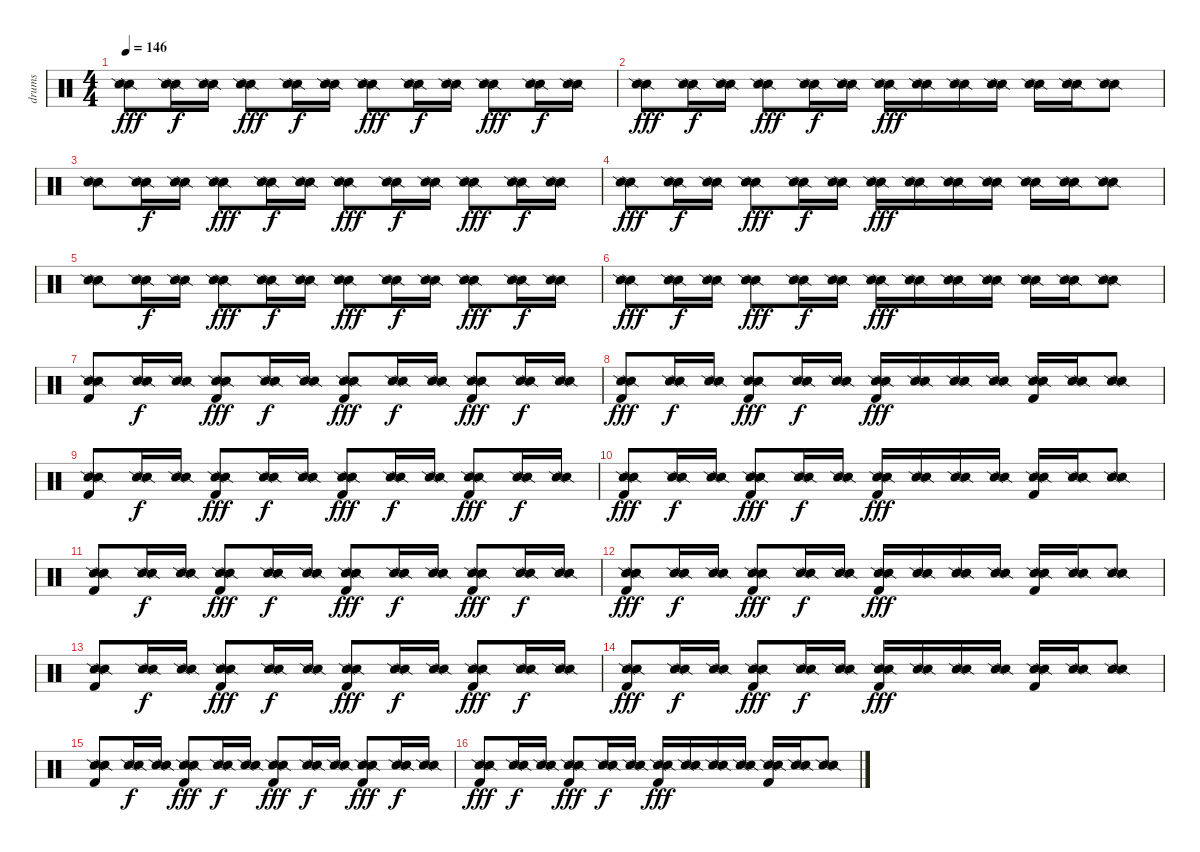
\track ("drums" "drums") {instrument percussion}
\staff {score}
\articulation defaults
\ts (4 4)
\tempo 146
\clef neutral
\ks c
("Snare (side stick) 2" "Snare (side stick) 2").8{dy fff} ("Snare (side stick) 2" "Snare (side stick) 2").16{dy f} ("Snare (side stick) 2" "Snare (side stick) 2").16 ("Snare (side stick) 2" "Snare (side stick) 2").8{dy fff} ("Snare (side stick) 2" "Snare (side stick) 2").16{dy f} ("Snare (side stick) 2" "Snare (side stick) 2").16 ("Snare (side stick) 2" "Snare (side stick) 2").8{dy fff} ("Snare (side stick) 2" "Snare (side stick) 2").16{dy f} ("Snare (side stick) 2" "Snare (side stick) 2").16 ("Snare (side stick) 2" "Snare (side stick) 2").8{dy fff} ("Snare (side stick) 2" "Snare (side stick) 2").16{dy f} ("Snare (side stick) 2" "Snare (side stick) 2").16 |
("Snare (side stick) 2" "Snare (side stick) 2").8{dy fff} ("Snare (side stick) 2" "Snare (side stick) 2").16{dy f} ("Snare (side stick) 2" "Snare (side stick) 2").16 ("Snare (side stick) 2" "Snare (side stick) 2").8{dy fff} ("Snare (side stick) 2" "Snare (side stick) 2").16{dy f} ("Snare (side stick) 2" "Snare (side stick) 2").16 ("Snare (side stick) 2" "Snare (side stick) 2").16{dy fff} ("Snare (side stick) 2" "Snare (side stick) 2").16 ("Snare (side stick) 2" "Snare (side stick) 2").16 ("Snare (side stick) 2" "Snare (side stick) 2").16 ("Snare (side stick) 2" "Snare (side stick) 2").16 ("Snare (side stick) 2" "Snare (side stick) 2").16 ("Snare (side stick) 2" "Snare (side stick) 2").8 |
("Snare (side stick) 2" "Snare (side stick) 2").8 ("Snare (side stick) 2" "Snare (side stick) 2").16{dy f} ("Snare (side stick) 2" "Snare (side stick) 2").16 ("Snare (side stick) 2" "Snare (side stick) 2").8{dy fff} ("Snare (side stick) 2" "Snare (side stick) 2").16{dy f} ("Snare (side stick) 2" "Snare (side stick) 2").16 ("Snare (side stick) 2" "Snare (side stick) 2").8{dy fff} ("Snare (side stick) 2" "Snare (side stick) 2").16{dy f} ("Snare (side stick) 2" "Snare (side stick) 2").16 ("Snare (side stick) 2" "Snare (side stick) 2").8{dy fff} ("Snare (side stick) 2" "Snare (side stick) 2").16{dy f} ("Snare (side stick) 2" "Snare (side stick) 2").16 |
("Snare (side stick) 2" "Snare (side stick) 2").8{dy fff} ("Snare (side stick) 2" "Snare (side stick) 2").16{dy f} ("Snare (side stick) 2" "Snare (side stick) 2").16 ("Snare (side stick) 2" "Snare (side stick) 2").8{dy fff} ("Snare (side stick) 2" "Snare (side stick) 2").16{dy f} ("Snare (side stick) 2" "Snare (side stick) 2").16 ("Snare (side stick) 2" "Snare (side stick) 2").16{dy fff} ("Snare (side stick) 2" "Snare (side stick) 2").16 ("Snare (side stick) 2" "Snare (side stick) 2").16 ("Snare (side stick) 2" "Snare (side stick) 2").16 ("Snare (side stick) 2" "Snare (side stick) 2").16 ("Snare (side stick) 2" "Snare (side stick) 2").16 ("Snare (side stick) 2" "Snare (side stick) 2").8 |
("Snare (side stick) 2" "Snare (side stick) 2").8 ("Snare (side stick) 2" "Snare (side stick) 2").16{dy f} ("Snare (side stick) 2" "Snare (side stick) 2").16 ("Snare (side stick) 2" "Snare (side stick) 2").8{dy fff} ("Snare (side stick) 2" "Snare (side stick) 2").16{dy f} ("Snare (side stick) 2" "Snare (side stick) 2").16 ("Snare (side stick) 2" "Snare (side stick) 2").8{dy fff} ("Snare (side stick) 2" "Snare (side stick) 2").16{dy f} ("Snare (side stick) 2" "Snare (side stick) 2").16 ("Snare (side stick) 2" "Snare (side stick) 2").8{dy fff} ("Snare (side stick) 2" "Snare (side stick) 2").16{dy f} ("Snare (side stick) 2" "Snare (side stick) 2").16 |
("Snare (side stick) 2" "Snare (side stick) 2").8{dy fff} ("Snare (side stick) 2" "Snare (side stick) 2").16{dy f} ("Snare (side stick) 2" "Snare (side stick) 2").16 ("Snare (side stick) 2" "Snare (side stick) 2").8{dy fff} ("Snare (side stick) 2" "Snare (side stick) 2").16{dy f} ("Snare (side stick) 2" "Snare (side stick) 2").16 ("Snare (side stick) 2" "Snare (side stick) 2").16{dy fff} ("Snare (side stick) 2" "Snare (side stick) 2").16 ("Snare (side stick) 2" "Snare (side stick) 2").16 ("Snare (side stick) 2" "Snare (side stick) 2").16 ("Snare (side stick) 2" "Snare (side stick) 2").16 ("Snare (side stick) 2" "Snare (side stick) 2").16 ("Snare (side stick) 2" "Snare (side stick) 2").8 |
("Snare (side stick) 2" "Snare (side stick) 2" "Kick (hit) 2").8 ("Snare (side stick) 2" "Snare (side stick) 2").16{dy f} ("Snare (side stick) 2" "Snare (side stick) 2").16 ("Snare (side stick) 2" "Snare (side stick) 2" "Kick (hit) 2").8{dy fff} ("Snare (side stick) 2" "Snare (side stick) 2").16{dy f} ("Snare (side stick) 2" "Snare (side stick) 2").16 ("Snare (side stick) 2" "Snare (side stick) 2" "Kick (hit) 2").8{dy fff} ("Snare (side stick) 2" "Snare (side stick) 2").16{dy f} ("Snare (side stick) 2" "Snare (side stick) 2").16 ("Snare (side stick) 2" "Snare (side stick) 2" "Kick (hit) 2").8{dy fff} ("Snare (side stick) 2" "Snare (side stick) 2").16{dy f} ("Snare (side stick) 2" "Snare (side stick) 2").16 |
("Snare (side stick) 2" "Snare (side stick) 2" "Kick (hit) 2").8{dy fff} ("Snare (side stick) 2" "Snare (side stick) 2").16{dy f} ("Snare (side stick) 2" "Snare (side stick) 2").16 ("Snare (side stick) 2" "Snare (side stick) 2" "Kick (hit) 2").8{dy fff} ("Snare (side stick) 2" "Snare (side stick) 2").16{dy f} ("Snare (side stick) 2" "Snare (side stick) 2").16 ("Snare (side stick) 2" "Snare (side stick) 2" "Kick (hit) 2").16{dy fff} ("Snare (side stick) 2" "Snare (side stick) 2").16 ("Snare (side stick) 2" "Snare (side stick) 2").16 ("Snare (side stick) 2" "Snare (side stick) 2").16 ("Snare (side stick) 2" "Snare (side stick) 2" "Kick (hit) 2").16 ("Snare (side stick) 2" "Snare (side stick) 2").16 ("Snare (side stick) 2" "Snare (side stick) 2").8 |
("Snare (side stick) 2" "Snare (side stick) 2" "Kick (hit) 2").8 ("Snare (side stick) 2" "Snare (side stick) 2").16{dy f} ("Snare (side stick) 2" "Snare (side stick) 2").16 ("Snare (side stick) 2" "Snare (side stick) 2" "Kick (hit) 2").8{dy fff} ("Snare (side stick) 2" "Snare (side stick) 2").16{dy f} ("Snare (side stick) 2" "Snare (side stick) 2").16 ("Snare (side stick) 2" "Snare (side stick) 2" "Kick (hit) 2").8{dy fff} ("Snare (side stick) 2" "Snare (side stick) 2").16{dy f} ("Snare (side stick) 2" "Snare (side stick) 2").16 ("Snare (side stick) 2" "Snare (side stick) 2" "Kick (hit) 2").8{dy fff} ("Snare (side stick) 2" "Snare (side stick) 2").16{dy f} ("Snare (side stick) 2" "Snare (side stick) 2").16 |
("Snare (side stick) 2" "Snare (side stick) 2" "Kick (hit) 2").8{dy fff} ("Snare (side stick) 2" "Snare (side stick) 2").16{dy f} ("Snare (side stick) 2" "Snare (side stick) 2").16 ("Snare (side stick) 2" "Snare (side stick) 2" "Kick (hit) 2").8{dy fff} ("Snare (side stick) 2" "Snare (side stick) 2").16{dy f} ("Snare (side stick) 2" "Snare (side stick) 2").16 ("Snare (side stick) 2" "Snare (side stick) 2" "Kick (hit) 2").16{dy fff} ("Snare (side stick) 2" "Snare (side stick) 2").16 ("Snare (side stick) 2" "Snare (side stick) 2").16 ("Snare (side stick) 2" "Snare (side stick) 2").16 ("Snare (side stick) 2" "Snare (side stick) 2" "Kick (hit) 2").16 ("Snare (side stick) 2" "Snare (side stick) 2").16 ("Snare (side stick) 2" "Snare (side stick) 2").8 |
("Snare (side stick) 2" "Snare (side stick) 2" "Kick (hit) 2").8 ("Snare (side stick) 2" "Snare (side stick) 2").16{dy f} ("Snare (side stick) 2" "Snare (side stick) 2").16 ("Snare (side stick) 2" "Snare (side stick) 2" "Kick (hit) 2").8{dy fff} ("Snare (side stick) 2" "Snare (side stick) 2").16{dy f} ("Snare (side stick) 2" "Snare (side stick) 2").16 ("Snare (side stick) 2" "Snare (side stick) 2" "Kick (hit) 2").8{dy fff} ("Snare (side stick) 2" "Snare (side stick) 2").16{dy f} ("Snare (side stick) 2" "Snare (side stick) 2").16 ("Snare (side stick) 2" "Snare (side stick) 2" "Kick (hit) 2").8{dy fff} ("Snare (side stick) 2" "Snare (side stick) 2").16{dy f} ("Snare (side stick) 2" "Snare (side stick) 2").16 |
("Snare (side stick) 2" "Snare (side stick) 2" "Kick (hit) 2").8{dy fff} ("Snare (side stick) 2" "Snare (side stick) 2").16{dy f} ("Snare (side stick) 2" "Snare (side stick) 2").16 ("Snare (side stick) 2" "Snare (side stick) 2" "Kick (hit) 2").8{dy fff} ("Snare (side stick) 2" "Snare (side stick) 2").16{dy f} ("Snare (side stick) 2" "Snare (side stick) 2").16 ("Snare (side stick) 2" "Snare (side stick) 2" "Kick (hit) 2").16{dy fff} ("Snare (side stick) 2" "Snare (side stick) 2").16 ("Snare (side stick) 2" "Snare (side stick) 2").16 ("Snare (side stick) 2" "Snare (side stick) 2").16 ("Snare (side stick) 2" "Snare (side stick) 2" "Kick (hit) 2").16 ("Snare (side stick) 2" "Snare (side stick) 2").16 ("Snare (side stick) 2" "Snare (side stick) 2").8 |
("Snare (side stick) 2" "Snare (side stick) 2" "Kick (hit) 2").8 ("Snare (side stick) 2" "Snare (side stick) 2").16{dy f} ("Snare (side stick) 2" "Snare (side stick) 2").16 ("Snare (side stick) 2" "Snare (side stick) 2" "Kick (hit) 2").8{dy fff} ("Snare (side stick) 2" "Snare (side stick) 2").16{dy f} ("Snare (side stick) 2" "Snare (side stick) 2").16 ("Snare (side stick) 2" "Snare (side stick) 2" "Kick (hit) 2").8{dy fff} ("Snare (side stick) 2" "Snare (side stick) 2").16{dy f} ("Snare (side stick) 2" "Snare (side stick) 2").16 ("Snare (side stick) 2" "Snare (side stick) 2" "Kick (hit) 2").8{dy fff} ("Snare (side stick) 2" "Snare (side stick) 2").16{dy f} ("Snare (side stick) 2" "Snare (side stick) 2").16 |
("Snare (side stick) 2" "Snare (side stick) 2" "Kick (hit) 2").8{dy fff} ("Snare (side stick) 2" "Snare (side stick) 2").16{dy f} ("Snare (side stick) 2" "Snare (side stick) 2").16 ("Snare (side stick) 2" "Snare (side stick) 2" "Kick (hit) 2").8{dy fff} ("Snare (side stick) 2" "Snare (side stick) 2").16{dy f} ("Snare (side stick) 2" "Snare (side stick) 2").16 ("Snare (side stick) 2" "Snare (side stick) 2" "Kick (hit) 2").16{dy fff} ("Snare (side stick) 2" "Snare (side stick) 2").16 ("Snare (side stick) 2" "Snare (side stick) 2").16 ("Snare (side stick) 2" "Snare (side stick) 2").16 ("Snare (side stick) 2" "Snare (side stick) 2" "Kick (hit) 2").16 ("Snare (side stick) 2" "Snare (side stick) 2").16 ("Snare (side stick) 2" "Snare (side stick) 2").8 |
("Snare (side stick) 2" "Snare (side stick) 2" "Kick (hit) 2").8 ("Snare (side stick) 2" "Snare (side stick) 2").16{dy f} ("Snare (side stick) 2" "Snare (side stick) 2").16 ("Snare (side stick) 2" "Snare (side stick) 2" "Kick (hit) 2").8{dy fff} ("Snare (side stick) 2" "Snare (side stick) 2").16{dy f} ("Snare (side stick) 2" "Snare (side stick) 2").16 ("Snare (side stick) 2" "Snare (side stick) 2" "Kick (hit) 2").8{dy fff} ("Snare (side stick) 2" "Snare (side stick) 2").16{dy f} ("Snare (side stick) 2" "Snare (side stick) 2").16 ("Snare (side stick) 2" "Snare (side stick) 2" "Kick (hit) 2").8{dy fff} ("Snare (side stick) 2" "Snare (side stick) 2").16{dy f} ("Snare (side stick) 2" "Snare (side stick) 2").16 |
("Snare (side stick) 2" "Snare (side stick) 2" "Kick (hit) 2").8{dy fff} ("Snare (side stick) 2" "Snare (side stick) 2").16{dy f} ("Snare (side stick) 2" "Snare (side stick) 2").16 ("Snare (side stick) 2" "Snare (side stick) 2" "Kick (hit) 2").8{dy fff} ("Snare (side stick) 2" "Snare (side stick) 2").16{dy f} ("Snare (side stick) 2" "Snare (side stick) 2").16 ("Snare (side stick) 2" "Snare (side stick) 2" "Kick (hit) 2").16{dy fff} ("Snare (side stick) 2" "Snare (side stick) 2").16 ("Snare (side stick) 2" "Snare (side stick) 2").16 ("Snare (side stick) 2" "Snare (side stick) 2").16 ("Snare (side stick) 2" "Snare (side stick) 2" "Kick (hit) 2").16 ("Snare (side stick) 2" "Snare (side stick) 2").16 ("Snare (side stick) 2" "Snare (side stick) 2").8
